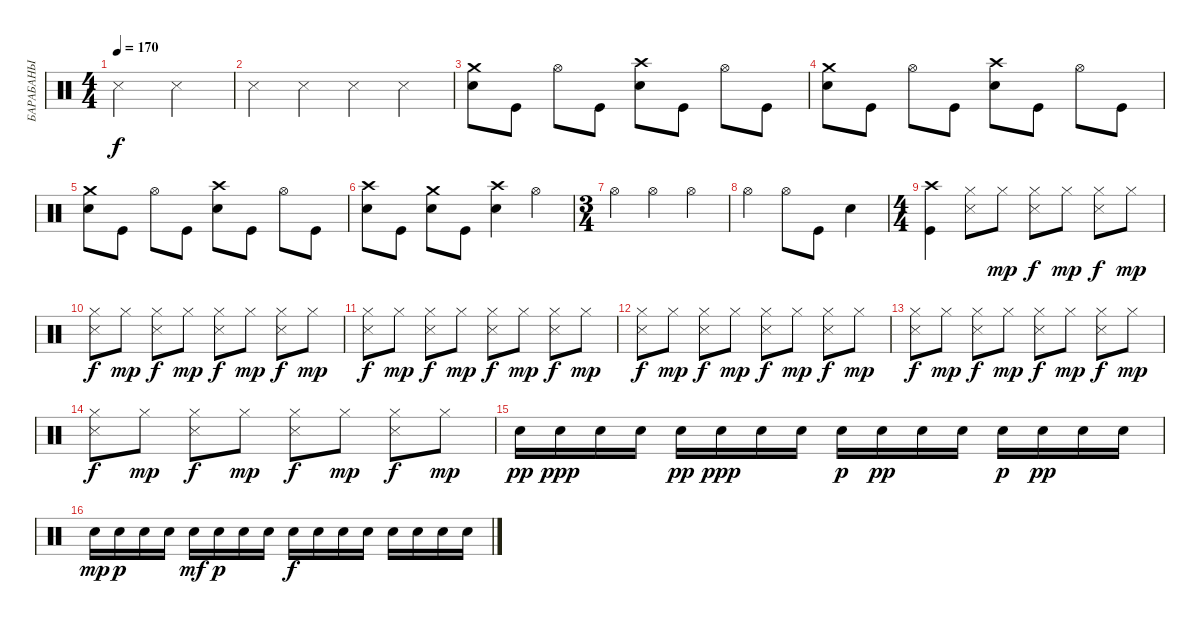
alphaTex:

\track ("БАРАБАНЫ" "БАРАБАНЫ") {instrument percussion}
\staff {score}
\articulation defaults
\ts (4 4)
\tempo 170
\clef neutral
\ks c "Metronome (hit)".2{dy f} "Metronome (hit)".2
|
"Metronome (hit)".4 "Metronome (hit)".4 "Metronome (hit)".4 "Metronome (hit)".4 |
("Crash medium (hit)" "Electric Snare (hit)").8 "Kick (hit)".8 "Hi-Hat (open)".8 "Kick (hit)".8 ("Crash high (hit)" "Electric Snare (hit)").8 "Kick (hit)".8 "Hi-Hat (open)".8 "Kick (hit)".8 |
("Crash medium (hit)" "Electric Snare (hit)").8 "Kick (hit)".8 "Hi-Hat (open)".8 "Kick (hit)".8 ("Crash high (hit)" "Electric Snare (hit)").8 "Kick (hit)".8 "Hi-Hat (open)".8 "Kick (hit)".8 |
("Crash medium (hit)" "Electric Snare (hit)").8 "Kick (hit)".8 "Hi-Hat (open)".8 "Kick (hit)".8 ("Crash high (hit)" "Electric Snare (hit)").8 "Kick (hit)".8 "Hi-Hat (open)".8 "Kick (hit)".8 |
("Crash high (hit)" "Electric Snare (hit)").8 "Kick (hit)".8 ("Crash medium (hit)" "Electric Snare (hit)").8 "Kick (hit)".8 ("Crash high (hit)" "Electric Snare (hit)").4 "Hi-Hat (open)".4 |
\ts (3 4)
"Hi-Hat (open)".4 "Hi-Hat (open)".4 "Hi-Hat (open)".4 |
"Hi-Hat (open)".4 "Hi-Hat (open)".8 "Kick (hit)".8 "Electric Snare (hit)".4 |
\ts (4 4)
("Crash high (hit)" "Kick (hit)").4 ("Hi-Hat (closed)" "Snare (side stick) 3").8 "Hi-Hat (closed)".8{dy mp} ("Hi-Hat (closed)" "Snare (side stick) 3").8{dy f} "Hi-Hat (closed)".8{dy mp} ("Hi-Hat (closed)" "Snare (side stick) 3").8{dy f} "Hi-Hat (closed)".8{dy mp} |
("Hi-Hat (closed)" "Snare (side stick) 3").8{dy f} "Hi-Hat (closed)".8{dy mp} ("Hi-Hat (closed)" "Snare (side stick) 3").8{dy f} "Hi-Hat (closed)".8{dy mp} ("Hi-Hat (closed)" "Snare (side stick) 3").8{dy f} "Hi-Hat (closed)".8{dy mp} ("Hi-Hat (closed)" "Snare (side stick) 3").8{dy f} "Hi-Hat (closed)".8{dy mp} |
("Hi-Hat (closed)" "Snare (side stick) 3").8{dy f} "Hi-Hat (closed)".8{dy mp} ("Hi-Hat (closed)" "Snare (side stick) 3").8{dy f} "Hi-Hat (closed)".8{dy mp} ("Hi-Hat (closed)" "Snare (side stick) 3").8{dy f} "Hi-Hat (closed)".8{dy mp} ("Hi-Hat (closed)" "Snare (side stick) 3").8{dy f} "Hi-Hat (closed)".8{dy mp} |
("Hi-Hat (closed)" "Snare (side stick) 3").8{dy f} "Hi-Hat (closed)".8{dy mp} ("Hi-Hat (closed)" "Snare (side stick) 3").8{dy f} "Hi-Hat (closed)".8{dy mp} ("Hi-Hat (closed)" "Snare (side stick) 3").8{dy f} "Hi-Hat (closed)".8{dy mp} ("Hi-Hat (closed)" "Snare (side stick) 3").8{dy f} "Hi-Hat (closed)".8{dy mp} |
("Hi-Hat (closed)" "Snare (side stick) 3").8{dy f} "Hi-Hat (closed)".8{dy mp} ("Hi-Hat (closed)" "Snare (side stick) 3").8{dy f} "Hi-Hat (closed)".8{dy mp} ("Hi-Hat (closed)" "Snare (side stick) 3").8{dy f} "Hi-Hat (closed)".8{dy mp} ("Hi-Hat (closed)" "Snare (side stick) 3").8{dy f} "Hi-Hat (closed)".8{dy mp} |
("Hi-Hat (closed)" "Snare (side stick) 3").8{dy f} "Hi-Hat (closed)".8{dy mp} ("Hi-Hat (closed)" "Snare (side stick) 3").8{dy f} "Hi-Hat (closed)".8{dy mp} ("Hi-Hat (closed)" "Snare (side stick) 3").8{dy f} "Hi-Hat (closed)".8{dy mp} ("Hi-Hat (closed)" "Snare (side stick) 3").8{dy f} "Hi-Hat (closed)".8{dy mp} |
"Electric Snare (hit)".16{dy pp} "Electric Snare (hit)".16{dy ppp} "Electric Snare (hit)".16 "Electric Snare (hit)".16 "Electric Snare (hit)".16{dy pp} "Electric Snare (hit)".16{dy ppp} "Electric Snare (hit)".16 "Electric Snare (hit)".16 "Electric Snare (hit)".16{dy p} "Electric Snare (hit)".16{dy pp} "Electric Snare (hit)".16 "Electric Snare (hit)".16 "Electric Snare (hit)".16{dy p} "Electric Snare (hit)".16{dy pp} "Electric Snare (hit)".16 "Electric Snare (hit)".16 |
"Electric Snare (hit)".16{dy mp} "Electric Snare (hit)".16{dy p} "Electric Snare (hit)".16 "Electric Snare (hit)".16 "Electric Snare (hit)".16{dy mf} "Electric Snare (hit)".16{dy p} "Electric Snare (hit)".16 "Electric Snare (hit)".16 "Electric Snare (hit)".16{dy f} "Electric Snare (hit)".16 "Electric Snare (hit)".16 "Electric Snare (hit)".16 "Electric Snare (hit)".16 "Electric Snare (hit)".16 "Electric Snare (hit)".16 "Electric Snare (hit)".16
